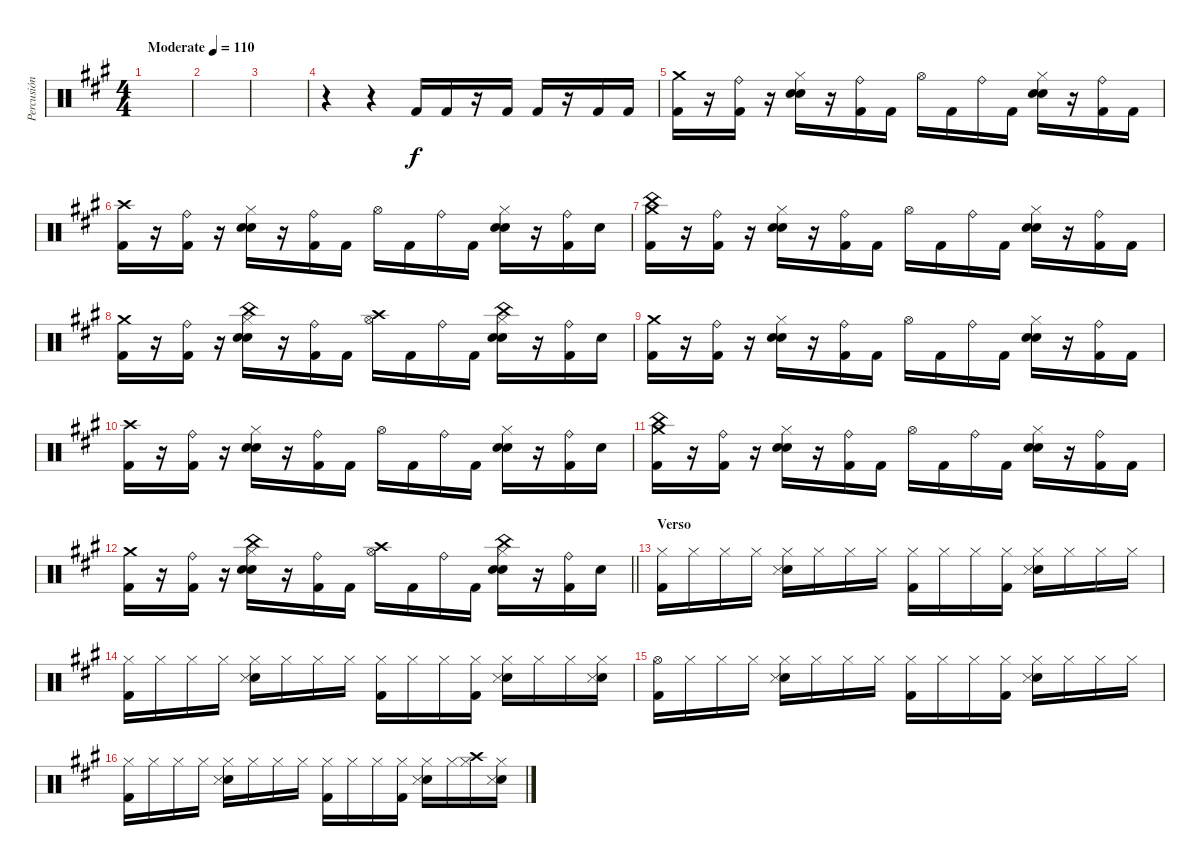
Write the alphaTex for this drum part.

\track ("Percusión" "Percusión") {instrument percussion}
\staff {score}
\articulation defaults
\ts (4 4)
\tempo (110 "Moderate")
\clef neutral
\ks a
|
|
|
r.4 r.4 "Kick (hit) 2".16 "Kick (hit) 2".16 r.16 "Kick (hit) 2".16 "Kick (hit) 2".16 r.16 "Kick (hit) 2".16 "Kick (hit) 2".16 |
("Crash medium (hit)" "Kick (hit) 2").16 r.16 ("Ride (bell)" "Kick (hit) 2").16 r.16 ("Hi-Hat (closed)" "Hand Clap (hit)" "Electric Snare (hit)").16 r.16 ("Ride (bell)" "Kick (hit) 2").16 "Kick (hit) 2".16 "Hi-Hat (open)".16 "Kick (hit) 2".16 "Ride (bell)".16 "Kick (hit) 2".16 ("Hi-Hat (closed)" "Hand Clap (hit)" "Electric Snare (hit)").16 r.16 ("Ride (bell)" "Kick (hit) 2").16 "Kick (hit) 2".16 |
("Crash high (hit)" "Kick (hit) 2").16 r.16 ("Ride (bell)" "Kick (hit) 2").16 r.16 ("Hi-Hat (closed)" "Hand Clap (hit)" "Electric Snare (hit)").16 r.16 ("Ride (bell)" "Kick (hit) 2").16 "Kick (hit) 2".16 "Hi-Hat (open)".16 "Kick (hit) 2".16 "Ride (bell)".16 "Kick (hit) 2".16 ("Hi-Hat (closed)" "Hand Clap (hit)" "Electric Snare (hit)").16 r.16 ("Ride (bell)" "Kick (hit) 2").16 "Hand Clap (hit)".16 |
("Crash medium (hit)" "China (hit)" "Kick (hit) 2").16 r.16 ("Ride (bell)" "Kick (hit) 2").16 r.16 ("Hi-Hat (closed)" "Hand Clap (hit)" "Electric Snare (hit)").16 r.16 ("Ride (bell)" "Kick (hit) 2").16 "Kick (hit) 2".16 "Hi-Hat (open)".16 "Kick (hit) 2".16 "Ride (bell)".16 "Kick (hit) 2".16 ("Hi-Hat (closed)" "Hand Clap (hit)" "Electric Snare (hit)").16 r.16 ("Ride (bell)" "Kick (hit) 2").16 "Kick (hit) 2".16 |
("Crash medium (hit)" "Kick (hit) 2").16 r.16 ("Ride (bell)" "Kick (hit) 2").16 r.16 ("China (hit)" "Hi-Hat (closed)" "Hand Clap (hit)" "Electric Snare (hit)").16 r.16 ("Ride (bell)" "Kick (hit) 2").16 "Kick (hit) 2".16 ("Crash high (hit)" "Hi-Hat (open)").16 "Kick (hit) 2".16 "Ride (bell)".16 "Kick (hit) 2".16 ("China (hit)" "Hi-Hat (closed)" "Hand Clap (hit)" "Electric Snare (hit)").16 r.16 ("Ride (bell)" "Kick (hit) 2").16 "Hand Clap (hit)".16 |
("Crash medium (hit)" "Kick (hit) 2").16 r.16 ("Ride (bell)" "Kick (hit) 2").16 r.16 ("Hi-Hat (closed)" "Hand Clap (hit)" "Electric Snare (hit)").16 r.16 ("Ride (bell)" "Kick (hit) 2").16 "Kick (hit) 2".16 "Hi-Hat (open)".16 "Kick (hit) 2".16 "Ride (bell)".16 "Kick (hit) 2".16 ("Hi-Hat (closed)" "Hand Clap (hit)" "Electric Snare (hit)").16 r.16 ("Ride (bell)" "Kick (hit) 2").16 "Kick (hit) 2".16 |
("Crash high (hit)" "Kick (hit) 2").16 r.16 ("Ride (bell)" "Kick (hit) 2").16 r.16 ("Hi-Hat (closed)" "Hand Clap (hit)" "Electric Snare (hit)").16 r.16 ("Ride (bell)" "Kick (hit) 2").16 "Kick (hit) 2".16 "Hi-Hat (open)".16 "Kick (hit) 2".16 "Ride (bell)".16 "Kick (hit) 2".16 ("Hi-Hat (closed)" "Hand Clap (hit)" "Electric Snare (hit)").16 r.16 ("Ride (bell)" "Kick (hit) 2").16 "Hand Clap (hit)".16 |
("Crash medium (hit)" "China (hit)" "Kick (hit) 2").16 r.16 ("Ride (bell)" "Kick (hit) 2").16 r.16 ("Hi-Hat (closed)" "Hand Clap (hit)" "Electric Snare (hit)").16 r.16 ("Ride (bell)" "Kick (hit) 2").16 "Kick (hit) 2".16 "Hi-Hat (open)".16 "Kick (hit) 2".16 "Ride (bell)".16 "Kick (hit) 2".16 ("Hi-Hat (closed)" "Hand Clap (hit)" "Electric Snare (hit)").16 r.16 ("Ride (bell)" "Kick (hit) 2").16 "Kick (hit) 2".16 |
\barLineRight lightlight
("Crash medium (hit)" "Kick (hit) 2").16 r.16 ("Ride (bell)" "Kick (hit) 2").16 r.16 ("China (hit)" "Hi-Hat (closed)" "Hand Clap (hit)" "Electric Snare (hit)").16 r.16 ("Ride (bell)" "Kick (hit) 2").16 "Kick (hit) 2".16 ("Crash high (hit)" "Hi-Hat (open)").16 "Kick (hit) 2".16 "Ride (bell)".16 "Kick (hit) 2".16 ("China (hit)" "Hi-Hat (closed)" "Hand Clap (hit)" "Electric Snare (hit)").16 r.16 ("Ride (bell)" "Kick (hit) 2").16 "Hand Clap (hit)".16 |
\section ("" "Verso")
("Hi-Hat (closed)" "Kick (hit) 2").16 "Hi-Hat (closed)".16 "Hi-Hat (closed)".16 "Hi-Hat (closed)".16 ("Hi-Hat (closed)" "Hand Clap (hit)" "Snare (side stick) 3").16 "Hi-Hat (closed)".16 "Hi-Hat (closed)".16 "Hi-Hat (closed)".16 ("Hi-Hat (closed)" "Kick (hit) 2").16 "Hi-Hat (closed)".16 "Hi-Hat (closed)".16 ("Hi-Hat (closed)" "Kick (hit) 2").16 ("Hi-Hat (closed)" "Hand Clap (hit)" "Snare (side stick) 3").16 "Hi-Hat (closed)".16 "Hi-Hat (closed)".16 "Hi-Hat (closed)".16 |
("Hi-Hat (closed)" "Kick (hit) 2").16 "Hi-Hat (closed)".16 "Hi-Hat (closed)".16 "Hi-Hat (closed)".16 ("Hi-Hat (closed)" "Hand Clap (hit)" "Snare (side stick) 3").16 "Hi-Hat (closed)".16 "Hi-Hat (closed)".16 "Hi-Hat (closed)".16 ("Hi-Hat (closed)" "Kick (hit) 2").16 "Hi-Hat (closed)".16 "Hi-Hat (closed)".16 ("Hi-Hat (closed)" "Kick (hit) 2").16 ("Hi-Hat (closed)" "Hand Clap (hit)" "Snare (side stick) 3").16 "Hi-Hat (closed)".16 "Hi-Hat (closed)".16 ("Hi-Hat (closed)" "Hand Clap (hit)" "Snare (side stick) 3").16 |
("Hi-Hat (open)" "Kick (hit) 2").16 "Hi-Hat (closed)".16 "Hi-Hat (closed)".16 "Hi-Hat (closed)".16 ("Hi-Hat (closed)" "Hand Clap (hit)" "Snare (side stick) 3").16 "Hi-Hat (closed)".16 "Hi-Hat (closed)".16 "Hi-Hat (closed)".16 ("Hi-Hat (closed)" "Kick (hit) 2").16 "Hi-Hat (closed)".16 "Hi-Hat (closed)".16 ("Hi-Hat (closed)" "Kick (hit) 2").16 ("Hi-Hat (closed)" "Hand Clap (hit)" "Snare (side stick) 3").16 "Hi-Hat (closed)".16 "Hi-Hat (closed)".16 "Hi-Hat (closed)".16 |
("Hi-Hat (closed)" "Kick (hit) 2").16 "Hi-Hat (closed)".16 "Hi-Hat (closed)".16 "Hi-Hat (closed)".16 ("Hi-Hat (closed)" "Hand Clap (hit)" "Snare (side stick) 3").16 "Hi-Hat (closed)".16 "Hi-Hat (closed)".16 "Hi-Hat (closed)".16 ("Hi-Hat (closed)" "Kick (hit) 2").16 "Hi-Hat (closed)".16 "Hi-Hat (closed)".16 ("Hi-Hat (closed)" "Kick (hit) 2").16 ("Hi-Hat (closed)" "Hand Clap (hit)" "Snare (side stick) 3").16 "Hi-Hat (closed)".16 ("Crash high (hit)" "Hi-Hat (closed)").16 ("Hi-Hat (closed)" "Hand Clap (hit)" "Snare (side stick) 3").16
